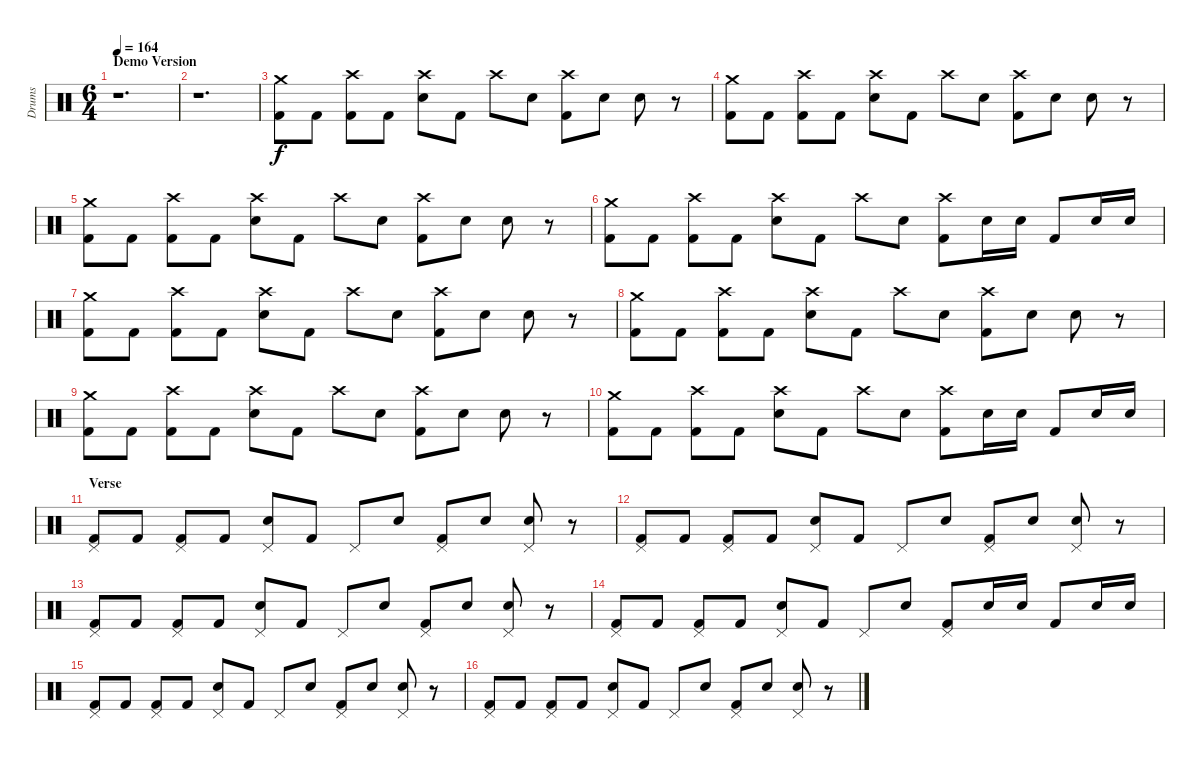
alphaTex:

\track ("Drums" "Drums") {instrument percussion}
\staff {score}
\articulation defaults
\ts (6 4)
\section ("" "Demo Version")
\tempo 164
\tempo 157
\tempo 164
\clef neutral
\ks c
r.1{d dy f volume 13} |
r.1{d} |
("Crash medium (hit)" "Kick (hit) 2").8 "Kick (hit) 2".8 ("Crash high (hit)" "Kick (hit) 2").8 "Kick (hit) 2".8 ("Crash high (hit)" "Electric Snare (hit)").8 "Kick (hit) 2".8 "Crash high (hit)".8 "Electric Snare (hit)".8 ("Crash high (hit)" "Kick (hit) 2").8 "Electric Snare (hit)".8 "Electric Snare (hit)".8 r.8 |
("Crash medium (hit)" "Kick (hit) 2").8 "Kick (hit) 2".8 ("Crash high (hit)" "Kick (hit) 2").8 "Kick (hit) 2".8 ("Crash high (hit)" "Electric Snare (hit)").8 "Kick (hit) 2".8 "Crash high (hit)".8 "Electric Snare (hit)".8 ("Crash high (hit)" "Kick (hit) 2").8 "Electric Snare (hit)".8 "Electric Snare (hit)".8 r.8 |
("Crash medium (hit)" "Kick (hit) 2").8 "Kick (hit) 2".8 ("Crash high (hit)" "Kick (hit) 2").8 "Kick (hit) 2".8 ("Crash high (hit)" "Electric Snare (hit)").8 "Kick (hit) 2".8 "Crash high (hit)".8 "Electric Snare (hit)".8 ("Crash high (hit)" "Kick (hit) 2").8 "Electric Snare (hit)".8 "Electric Snare (hit)".8 r.8 |
("Crash medium (hit)" "Kick (hit) 2").8 "Kick (hit) 2".8 ("Crash high (hit)" "Kick (hit) 2").8 "Kick (hit) 2".8 ("Crash high (hit)" "Electric Snare (hit)").8 "Kick (hit) 2".8 "Crash high (hit)".8 "Electric Snare (hit)".8 ("Crash high (hit)" "Kick (hit) 2").8 "Electric Snare (hit)".16 "Electric Snare (hit)".16 "Kick (hit) 2".8 "Electric Snare (hit)".16 "Electric Snare (hit)".16 |
("Crash medium (hit)" "Kick (hit) 2").8 "Kick (hit) 2".8 ("Crash high (hit)" "Kick (hit) 2").8 "Kick (hit) 2".8 ("Crash high (hit)" "Electric Snare (hit)").8 "Kick (hit) 2".8 "Crash high (hit)".8 "Electric Snare (hit)".8 ("Crash high (hit)" "Kick (hit) 2").8 "Electric Snare (hit)".8 "Electric Snare (hit)".8 r.8 |
("Crash medium (hit)" "Kick (hit) 2").8 "Kick (hit) 2".8 ("Crash high (hit)" "Kick (hit) 2").8 "Kick (hit) 2".8 ("Crash high (hit)" "Electric Snare (hit)").8 "Kick (hit) 2".8 "Crash high (hit)".8 "Electric Snare (hit)".8 ("Crash high (hit)" "Kick (hit) 2").8 "Electric Snare (hit)".8 "Electric Snare (hit)".8 r.8 |
("Crash medium (hit)" "Kick (hit) 2").8 "Kick (hit) 2".8 ("Crash high (hit)" "Kick (hit) 2").8 "Kick (hit) 2".8 ("Crash high (hit)" "Electric Snare (hit)").8 "Kick (hit) 2".8 "Crash high (hit)".8 "Electric Snare (hit)".8 ("Crash high (hit)" "Kick (hit) 2").8 "Electric Snare (hit)".8 "Electric Snare (hit)".8 r.8 |
("Crash medium (hit)" "Kick (hit) 2").8 "Kick (hit) 2".8 ("Crash high (hit)" "Kick (hit) 2").8 "Kick (hit) 2".8 ("Crash high (hit)" "Electric Snare (hit)").8 "Kick (hit) 2".8 "Crash high (hit)".8 "Electric Snare (hit)".8 ("Crash high (hit)" "Kick (hit) 2").8 "Electric Snare (hit)".16 "Electric Snare (hit)".16 "Kick (hit) 2".8 "Electric Snare (hit)".16 "Electric Snare (hit)".16 |
\section ("" "Verse")
("Pedal Hi-Hat (hit)" "Kick (hit) 2").8 "Kick (hit) 2".8 ("Pedal Hi-Hat (hit)" "Kick (hit) 2").8 "Kick (hit) 2".8 ("Pedal Hi-Hat (hit)" "Electric Snare (hit)").8 "Kick (hit) 2".8 "Pedal Hi-Hat (hit)".8 "Electric Snare (hit)".8 ("Pedal Hi-Hat (hit)" "Kick (hit) 2").8 "Electric Snare (hit)".8 ("Pedal Hi-Hat (hit)" "Electric Snare (hit)").8 r.8 |
("Pedal Hi-Hat (hit)" "Kick (hit) 2").8 "Kick (hit) 2".8 ("Pedal Hi-Hat (hit)" "Kick (hit) 2").8 "Kick (hit) 2".8 ("Pedal Hi-Hat (hit)" "Electric Snare (hit)").8 "Kick (hit) 2".8 "Pedal Hi-Hat (hit)".8 "Electric Snare (hit)".8 ("Pedal Hi-Hat (hit)" "Kick (hit) 2").8 "Electric Snare (hit)".8 ("Pedal Hi-Hat (hit)" "Electric Snare (hit)").8 r.8 |
("Pedal Hi-Hat (hit)" "Kick (hit) 2").8 "Kick (hit) 2".8 ("Pedal Hi-Hat (hit)" "Kick (hit) 2").8 "Kick (hit) 2".8 ("Pedal Hi-Hat (hit)" "Electric Snare (hit)").8 "Kick (hit) 2".8 "Pedal Hi-Hat (hit)".8 "Electric Snare (hit)".8 ("Pedal Hi-Hat (hit)" "Kick (hit) 2").8 "Electric Snare (hit)".8 ("Pedal Hi-Hat (hit)" "Electric Snare (hit)").8 r.8 |
("Pedal Hi-Hat (hit)" "Kick (hit) 2").8 "Kick (hit) 2".8 ("Pedal Hi-Hat (hit)" "Kick (hit) 2").8 "Kick (hit) 2".8 ("Pedal Hi-Hat (hit)" "Electric Snare (hit)").8 "Kick (hit) 2".8 "Pedal Hi-Hat (hit)".8 "Electric Snare (hit)".8 ("Pedal Hi-Hat (hit)" "Kick (hit) 2").8 "Electric Snare (hit)".16 "Electric Snare (hit)".16 "Kick (hit) 2".8 "Electric Snare (hit)".16 "Electric Snare (hit)".16 |
("Pedal Hi-Hat (hit)" "Kick (hit) 2").8 "Kick (hit) 2".8 ("Pedal Hi-Hat (hit)" "Kick (hit) 2").8 "Kick (hit) 2".8 ("Pedal Hi-Hat (hit)" "Electric Snare (hit)").8 "Kick (hit) 2".8 "Pedal Hi-Hat (hit)".8 "Electric Snare (hit)".8 ("Pedal Hi-Hat (hit)" "Kick (hit) 2").8 "Electric Snare (hit)".8 ("Pedal Hi-Hat (hit)" "Electric Snare (hit)").8 r.8 |
("Pedal Hi-Hat (hit)" "Kick (hit) 2").8 "Kick (hit) 2".8 ("Pedal Hi-Hat (hit)" "Kick (hit) 2").8 "Kick (hit) 2".8 ("Pedal Hi-Hat (hit)" "Electric Snare (hit)").8 "Kick (hit) 2".8 "Pedal Hi-Hat (hit)".8 "Electric Snare (hit)".8 ("Pedal Hi-Hat (hit)" "Kick (hit) 2").8 "Electric Snare (hit)".8 ("Pedal Hi-Hat (hit)" "Electric Snare (hit)").8 r.8
